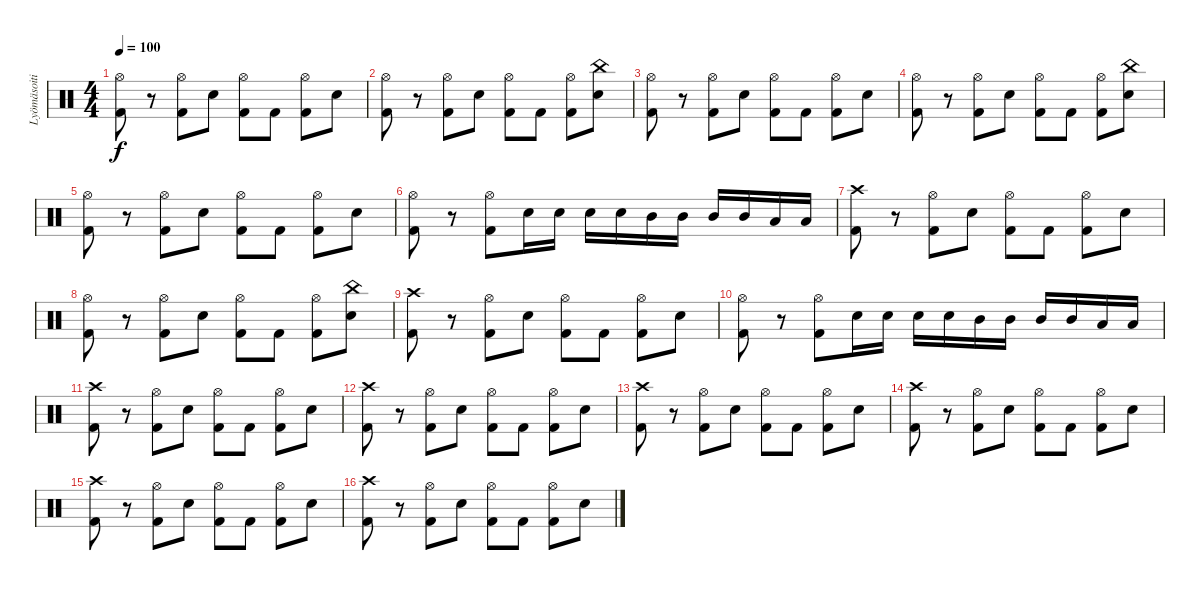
\track ("Lyömäsoitin" "Lyömäsoiti") {instrument percussion}
\staff {score}
\articulation defaults
\ts (4 4)
\tempo 100
\clef neutral
\ks c
("Hi-Hat (open)" "Kick (hit) 2").8{dy f} r.8 ("Hi-Hat (open)" "Kick (hit) 2").8 "Snare (hit) 2".8 ("Hi-Hat (open)" "Kick (hit) 2").8 "Kick (hit) 2".8 ("Hi-Hat (open)" "Kick (hit) 2").8 "Snare (hit) 2".8 |
("Hi-Hat (open)" "Kick (hit) 2").8 r.8 ("Hi-Hat (open)" "Kick (hit) 2").8 "Snare (hit) 2".8 ("Hi-Hat (open)" "Kick (hit) 2").8 "Kick (hit) 2".8 ("Hi-Hat (open)" "Kick (hit) 2").8 ("China (hit)" "Snare (hit) 2").8 |
("Hi-Hat (open)" "Kick (hit) 2").8 r.8 ("Hi-Hat (open)" "Kick (hit) 2").8 "Snare (hit) 2".8 ("Hi-Hat (open)" "Kick (hit) 2").8 "Kick (hit) 2".8 ("Hi-Hat (open)" "Kick (hit) 2").8 "Snare (hit) 2".8 |
("Hi-Hat (open)" "Kick (hit) 2").8 r.8 ("Hi-Hat (open)" "Kick (hit) 2").8 "Snare (hit) 2".8 ("Hi-Hat (open)" "Kick (hit) 2").8 "Kick (hit) 2".8 ("Hi-Hat (open)" "Kick (hit) 2").8 ("China (hit)" "Snare (hit) 2").8 |
("Hi-Hat (open)" "Kick (hit) 2").8 r.8 ("Hi-Hat (open)" "Kick (hit) 2").8 "Snare (hit) 2".8 ("Hi-Hat (open)" "Kick (hit) 2").8 "Kick (hit) 2".8 ("Hi-Hat (open)" "Kick (hit) 2").8 "Snare (hit) 2".8 |
("Hi-Hat (open)" "Kick (hit) 2").8 r.8 ("Hi-Hat (open)" "Kick (hit) 2").8 "Snare (hit) 2".16 "Snare (hit) 2".16 "Snare (hit) 2".16 "Snare (hit) 2".16 "Mid Tom (hit)".16 "Mid Tom (hit)".16 "Mid Tom (hit)".16 "Mid Tom (hit)".16 "Low Tom (hit)".16 "Low Tom (hit)".16 |
("Crash high (hit)" "Kick (hit) 2").8 r.8 ("Hi-Hat (open)" "Kick (hit) 2").8 "Snare (hit) 2".8 ("Hi-Hat (open)" "Kick (hit) 2").8 "Kick (hit) 2".8 ("Hi-Hat (open)" "Kick (hit) 2").8 "Snare (hit) 2".8 |
("Hi-Hat (open)" "Kick (hit) 2").8 r.8 ("Hi-Hat (open)" "Kick (hit) 2").8 "Snare (hit) 2".8 ("Hi-Hat (open)" "Kick (hit) 2").8 "Kick (hit) 2".8 ("Hi-Hat (open)" "Kick (hit) 2").8 ("China (hit)" "Snare (hit) 2").8 |
("Crash high (hit)" "Kick (hit) 2").8 r.8 ("Hi-Hat (open)" "Kick (hit) 2").8 "Snare (hit) 2".8 ("Hi-Hat (open)" "Kick (hit) 2").8 "Kick (hit) 2".8 ("Hi-Hat (open)" "Kick (hit) 2").8 "Snare (hit) 2".8 |
("Hi-Hat (open)" "Kick (hit) 2").8 r.8 ("Hi-Hat (open)" "Kick (hit) 2").8 "Snare (hit) 2".16 "Snare (hit) 2".16 "Snare (hit) 2".16 "Snare (hit) 2".16 "Mid Tom (hit)".16 "Mid Tom (hit)".16 "Mid Tom (hit)".16 "Mid Tom (hit)".16 "Low Tom (hit)".16 "Low Tom (hit)".16 |
("Crash high (hit)" "Kick (hit) 2").8 r.8 ("Hi-Hat (open)" "Kick (hit) 2").8 "Snare (hit) 2".8 ("Hi-Hat (open)" "Kick (hit) 2").8 "Kick (hit) 2".8 ("Hi-Hat (open)" "Kick (hit) 2").8 "Snare (hit) 2".8 |
("Crash high (hit)" "Kick (hit) 2").8 r.8 ("Hi-Hat (open)" "Kick (hit) 2").8 "Snare (hit) 2".8 ("Hi-Hat (open)" "Kick (hit) 2").8 "Kick (hit) 2".8 ("Hi-Hat (open)" "Kick (hit) 2").8 "Snare (hit) 2".8 |
("Crash high (hit)" "Kick (hit) 2").8 r.8 ("Hi-Hat (open)" "Kick (hit) 2").8 "Snare (hit) 2".8 ("Hi-Hat (open)" "Kick (hit) 2").8 "Kick (hit) 2".8 ("Hi-Hat (open)" "Kick (hit) 2").8 "Snare (hit) 2".8 |
("Crash high (hit)" "Kick (hit) 2").8 r.8 ("Hi-Hat (open)" "Kick (hit) 2").8 "Snare (hit) 2".8 ("Hi-Hat (open)" "Kick (hit) 2").8 "Kick (hit) 2".8 ("Hi-Hat (open)" "Kick (hit) 2").8 "Snare (hit) 2".8 |
("Crash high (hit)" "Kick (hit) 2").8 r.8 ("Hi-Hat (open)" "Kick (hit) 2").8 "Snare (hit) 2".8 ("Hi-Hat (open)" "Kick (hit) 2").8 "Kick (hit) 2".8 ("Hi-Hat (open)" "Kick (hit) 2").8 "Snare (hit) 2".8 |
("Crash high (hit)" "Kick (hit) 2").8 r.8 ("Hi-Hat (open)" "Kick (hit) 2").8 "Snare (hit) 2".8 ("Hi-Hat (open)" "Kick (hit) 2").8 "Kick (hit) 2".8 ("Hi-Hat (open)" "Kick (hit) 2").8 "Snare (hit) 2".8
